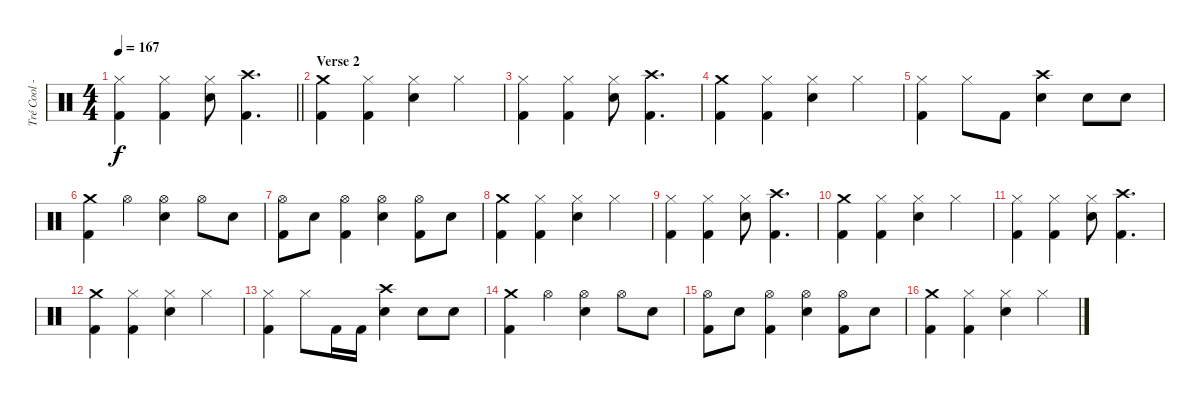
\track ("Tré Cool - Drums" "Tré Cool -") {instrument percussion}
\staff {score}
\articulation defaults
\ts (4 4)
\tempo 167
\clef neutral
\barLineRight lightlight
\ks c
("Hi-Hat (closed)" "Kick (hit) 2").4{dy f} ("Hi-Hat (closed)" "Kick (hit) 2").4 ("Hi-Hat (closed)" "Electric Snare (hit)").8 ("Crash high (hit)" "Kick (hit) 2").4{d} |
\section ("" "Verse 2")
("Crash medium (hit)" "Kick (hit) 2").4 ("Hi-Hat (closed)" "Kick (hit) 2").4 ("Hi-Hat (closed)" "Electric Snare (hit)").4 "Hi-Hat (closed)".4 |
("Hi-Hat (closed)" "Kick (hit) 2").4 ("Hi-Hat (closed)" "Kick (hit) 2").4 ("Hi-Hat (closed)" "Electric Snare (hit)").8 ("Crash high (hit)" "Kick (hit) 2").4{d} |
("Crash medium (hit)" "Kick (hit) 2").4 ("Hi-Hat (closed)" "Kick (hit) 2").4 ("Hi-Hat (closed)" "Electric Snare (hit)").4 "Hi-Hat (closed)".4 |
("Hi-Hat (closed)" "Kick (hit) 2").4 "Hi-Hat (closed)".8 "Kick (hit) 2".8 ("Crash high (hit)" "Electric Snare (hit)").4 "Electric Snare (hit)".8 "Electric Snare (hit)".8 |
("Crash medium (hit)" "Kick (hit) 2").4 "Hi-Hat (open)".4 ("Hi-Hat (open)" "Electric Snare (hit)").4 "Hi-Hat (open)".8 "Electric Snare (hit)".8 |
("Hi-Hat (open)" "Kick (hit) 2").8 "Electric Snare (hit)".8 ("Hi-Hat (open)" "Kick (hit) 2").4 ("Hi-Hat (open)" "Electric Snare (hit)").4 ("Hi-Hat (open)" "Kick (hit) 2").8 "Electric Snare (hit)".8 |
("Crash medium (hit)" "Kick (hit) 2").4 ("Hi-Hat (closed)" "Kick (hit) 2").4 ("Hi-Hat (closed)" "Electric Snare (hit)").4 "Hi-Hat (closed)".4 |
("Hi-Hat (closed)" "Kick (hit) 2").4 ("Hi-Hat (closed)" "Kick (hit) 2").4 ("Hi-Hat (closed)" "Electric Snare (hit)").8 ("Crash high (hit)" "Kick (hit) 2").4{d} |
("Crash medium (hit)" "Kick (hit) 2").4 ("Hi-Hat (closed)" "Kick (hit) 2").4 ("Hi-Hat (closed)" "Electric Snare (hit)").4 "Hi-Hat (closed)".4 |
("Hi-Hat (closed)" "Kick (hit) 2").4 ("Hi-Hat (closed)" "Kick (hit) 2").4 ("Hi-Hat (closed)" "Electric Snare (hit)").8 ("Crash high (hit)" "Kick (hit) 2").4{d} |
("Crash medium (hit)" "Kick (hit) 2").4 ("Hi-Hat (closed)" "Kick (hit) 2").4 ("Hi-Hat (closed)" "Electric Snare (hit)").4 "Hi-Hat (closed)".4 |
("Hi-Hat (closed)" "Kick (hit) 2").4 "Hi-Hat (closed)".8 "Kick (hit) 2".16 "Kick (hit) 2".16 ("Crash high (hit)" "Electric Snare (hit)").4 "Electric Snare (hit)".8 "Electric Snare (hit)".8 |
("Crash medium (hit)" "Kick (hit) 2").4 "Hi-Hat (open)".4 ("Hi-Hat (open)" "Electric Snare (hit)").4 "Hi-Hat (open)".8 "Electric Snare (hit)".8 |
("Hi-Hat (open)" "Kick (hit) 2").8 "Electric Snare (hit)".8 ("Hi-Hat (open)" "Kick (hit) 2").4 ("Hi-Hat (open)" "Electric Snare (hit)").4 ("Hi-Hat (open)" "Kick (hit) 2").8 "Electric Snare (hit)".8 |
("Crash medium (hit)" "Kick (hit) 2").4 ("Hi-Hat (closed)" "Kick (hit) 2").4 ("Hi-Hat (closed)" "Electric Snare (hit)").4 "Hi-Hat (closed)".4
